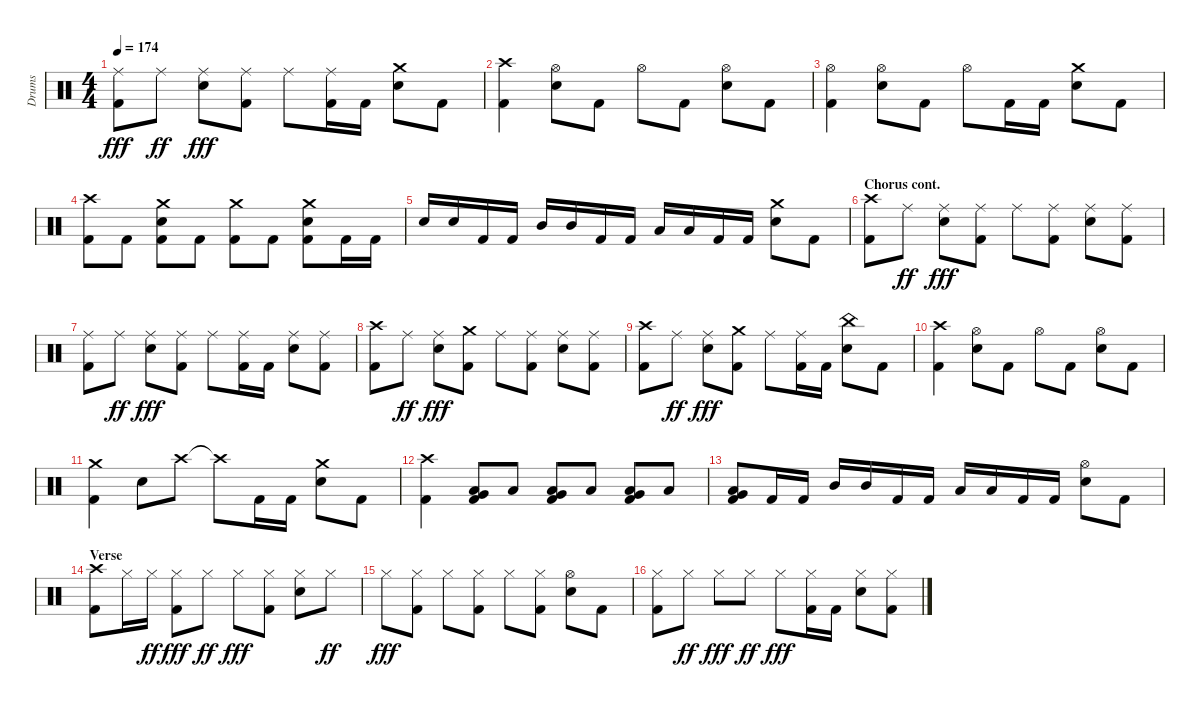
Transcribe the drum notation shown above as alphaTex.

\track ("Drums" "Drums") {instrument percussion}
\staff {score}
\articulation defaults
\ts (4 4)
\tempo 174
\clef neutral
\ks aminor
("Kick (hit) 2" "Ride (middle)").8{dy fff} "Ride (middle)".8{dy ff} ("Snare (hit) 2" "Ride (middle)").8{dy fff} ("Kick (hit) 2" "Ride (middle)").8 "Ride (middle)".8 ("Kick (hit) 2" "Ride (middle)").16 "Kick (hit) 2".16 ("Snare (hit) 2" "Crash medium (hit)").8 "Kick (hit) 2".8 |
("Kick (hit) 2" "Crash high (hit)").4 ("Snare (hit) 2" "Hi-Hat (open)").8 "Kick (hit) 2".8 "Hi-Hat (open)".8 "Kick (hit) 2".8 ("Snare (hit) 2" "Hi-Hat (open)").8 "Kick (hit) 2".8 |
("Kick (hit) 2" "Hi-Hat (open)").4 ("Snare (hit) 2" "Hi-Hat (open)").8 "Kick (hit) 2".8 "Hi-Hat (open)".8 "Kick (hit) 2".16 "Kick (hit) 2".16 ("Snare (hit) 2" "Crash medium (hit)").8 "Kick (hit) 2".8 |
("Kick (hit) 2" "Crash high (hit)").8 "Kick (hit) 2".8 ("Kick (hit) 2" "Snare (hit) 2" "Crash medium (hit)").8 "Kick (hit) 2".8 ("Kick (hit) 2" "Crash medium (hit)").8 "Kick (hit) 2".8 ("Kick (hit) 2" "Snare (hit) 2" "Crash medium (hit)").8 "Kick (hit) 2".16 "Kick (hit) 2".16 |
"Snare (hit) 2".16 "Snare (hit) 2".16 "Kick (hit) 2".16 "Kick (hit) 2".16 "Mid Tom (hit)".16 "Mid Tom (hit)".16 "Kick (hit) 2".16 "Kick (hit) 2".16 "Low Tom (hit)".16 "Low Tom (hit)".16 "Kick (hit) 2".16 "Kick (hit) 2".16 ("Snare (hit) 2" "Crash medium (hit)").8 "Kick (hit) 2".8 |
\section ("" "Chorus cont.")
("Kick (hit) 2" "Crash high (hit)").8 "Ride (middle)".8{dy ff} ("Snare (hit) 2" "Ride (middle)").8{dy fff} ("Kick (hit) 2" "Ride (middle)").8 "Ride (middle)".8 ("Kick (hit) 2" "Ride (middle)").8 ("Snare (hit) 2" "Ride (middle)").8 ("Kick (hit) 2" "Ride (middle)").8 |
("Kick (hit) 2" "Ride (middle)").8 "Ride (middle)".8{dy ff} ("Snare (hit) 2" "Ride (middle)").8{dy fff} ("Kick (hit) 2" "Ride (middle)").8 "Ride (middle)".8 ("Kick (hit) 2" "Ride (middle)").16 "Kick (hit) 2".16 ("Snare (hit) 2" "Ride (middle)").8 ("Kick (hit) 2" "Ride (middle)").8 |
("Kick (hit) 2" "Crash high (hit)").8 "Ride (middle)".8{dy ff} ("Snare (hit) 2" "Ride (middle)").8{dy fff} ("Kick (hit) 2" "Crash medium (hit)").8 "Ride (middle)".8 ("Kick (hit) 2" "Ride (middle)").8 ("Snare (hit) 2" "Ride (middle)").8 ("Kick (hit) 2" "Ride (middle)").8 |
("Kick (hit) 2" "Crash high (hit)").8 "Ride (middle)".8{dy ff} ("Snare (hit) 2" "Ride (middle)").8{dy fff} ("Kick (hit) 2" "Crash medium (hit)").8 "Ride (middle)".8 ("Kick (hit) 2" "Ride (middle)").16 "Kick (hit) 2".16 ("Snare (hit) 2" "China (hit)").8 "Kick (hit) 2".8 |
("Kick (hit) 2" "Crash high (hit)").4 ("Snare (hit) 2" "Hi-Hat (open)").8 "Kick (hit) 2".8 "Hi-Hat (open)".8 "Kick (hit) 2".8 ("Snare (hit) 2" "Hi-Hat (open)").8 "Kick (hit) 2".8 |
("Kick (hit) 2" "Crash medium (hit)").4 "Snare (hit) 2".8 "Crash high (hit)".8 "Crash high (hit)"{t}.8 "Kick (hit) 2".16 "Kick (hit) 2".16 ("Snare (hit) 2" "Crash medium (hit)").8 "Kick (hit) 2".8 |
("Kick (hit) 2" "Crash high (hit)").4 ("Kick (hit) 2" "Low Floor Tom (hit)" "Very Low Tom (hit)").8 "Low Floor Tom (hit)".8 ("Kick (hit) 2" "Low Floor Tom (hit)" "Very Low Tom (hit)").8 "Low Floor Tom (hit)".8 ("Kick (hit) 2" "Low Floor Tom (hit)" "Very Low Tom (hit)").8 "Low Floor Tom (hit)".8 |
("Kick (hit) 2" "Low Floor Tom (hit)" "Very Low Tom (hit)").8 "Kick (hit) 2".16 "Kick (hit) 2".16 "Mid Tom (hit)".16 "Mid Tom (hit)".16 "Kick (hit) 2".16 "Kick (hit) 2".16 "Low Tom (hit)".16 "Low Tom (hit)".16 "Kick (hit) 2".16 "Kick (hit) 2".16 ("Snare (hit) 2" "Hi-Hat (open)").8 "Kick (hit) 2".8 |
\section ("" "Verse")
("Kick (hit) 2" "Crash high (hit)").8 "Hi-Hat (closed)".16 "Hi-Hat (closed)".16{dy ff} ("Kick (hit) 2" "Hi-Hat (closed)").8{dy fff} "Hi-Hat (closed)".8{dy ff} "Hi-Hat (closed)".8{dy fff} ("Kick (hit) 2" "Hi-Hat (closed)").8 ("Snare (hit) 2" "Hi-Hat (closed)").8 "Hi-Hat (closed)".8{dy ff} |
"Hi-Hat (closed)".8{dy fff} ("Kick (hit) 2" "Hi-Hat (closed)").8 "Hi-Hat (closed)".8 ("Kick (hit) 2" "Hi-Hat (closed)").8 "Hi-Hat (closed)".8 ("Kick (hit) 2" "Hi-Hat (closed)").8 ("Snare (hit) 2" "Hi-Hat (open)").8 "Kick (hit) 2".8 |
("Kick (hit) 2" "Hi-Hat (closed)").8 "Hi-Hat (closed)".8{dy ff} "Hi-Hat (closed)".8{dy fff} "Hi-Hat (closed)".8{dy ff} "Hi-Hat (closed)".8{dy fff} ("Kick (hit) 2" "Hi-Hat (closed)").16 "Kick (hit) 2".16 ("Snare (hit) 2" "Hi-Hat (closed)").8 ("Kick (hit) 2" "Hi-Hat (closed)").8
